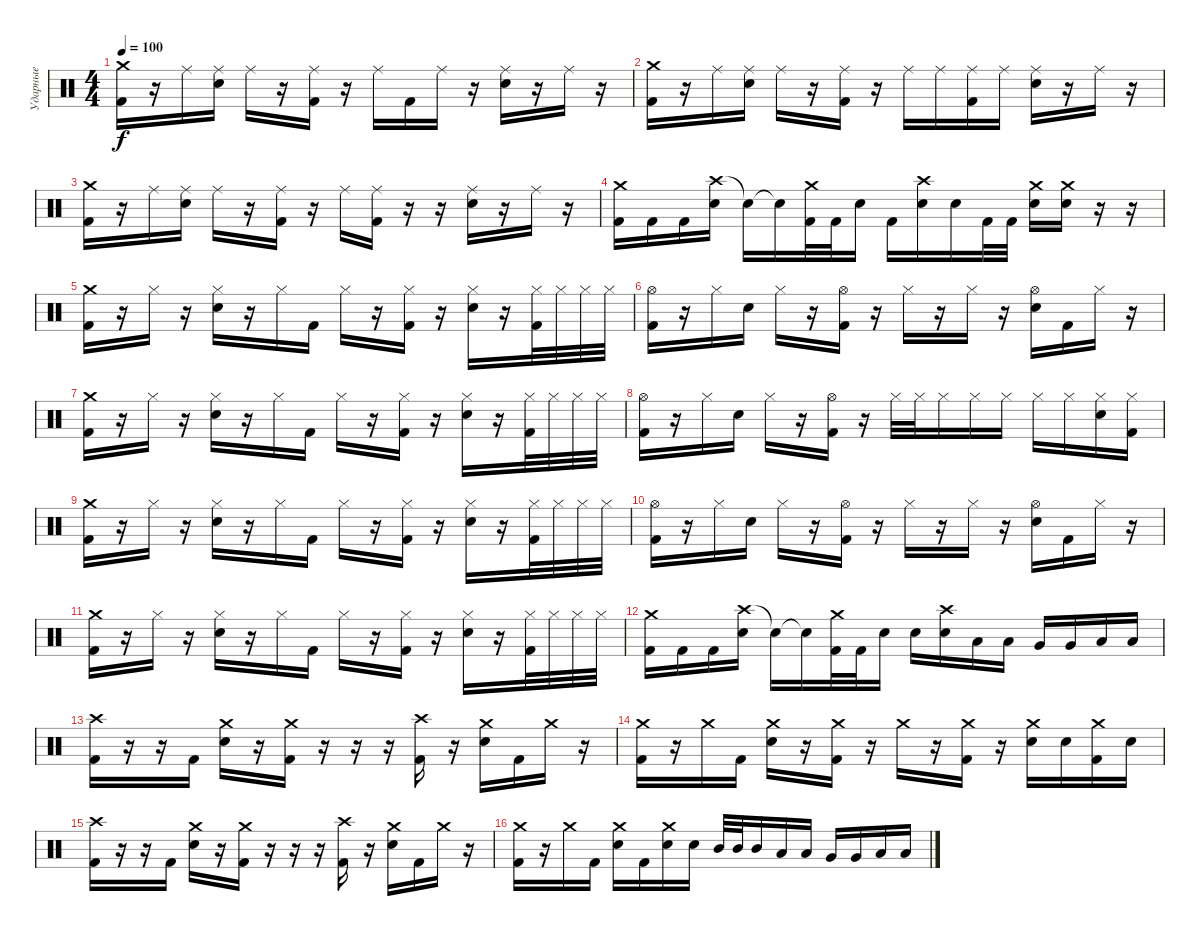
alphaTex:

\track ("Ударные" "Ударные") {instrument percussion}
\staff {score}
\articulation defaults
\ts (4 4)
\tempo 100
\clef neutral
\ks c
("Crash medium (hit)" "Kick (hit) 2").16{dy f} r.16 "Ride (middle)".16 ("Ride (middle)" "Electric Snare (hit)").16 "Ride (middle)".16 r.16 ("Ride (middle)" "Kick (hit) 2").16 r.16 "Ride (middle)".16 "Kick (hit) 2".16 "Ride (middle)".16 r.16 ("Ride (middle)" "Electric Snare (hit)").16 r.16 "Ride (middle)".16 r.16 |
("Crash medium (hit)" "Kick (hit) 2").16 r.16 "Ride (middle)".16 ("Ride (middle)" "Electric Snare (hit)").16 "Ride (middle)".16 r.16 ("Ride (middle)" "Kick (hit) 2").16 r.16 "Ride (middle)".16 "Ride (middle)".16 ("Ride (middle)" "Kick (hit) 2").16 "Ride (middle)".16 ("Ride (middle)" "Electric Snare (hit)").16 r.16 "Ride (middle)".16 r.16 |
("Crash medium (hit)" "Kick (hit) 2").16 r.16 "Ride (middle)".16 ("Ride (middle)" "Electric Snare (hit)").16 "Ride (middle)".16 r.16 ("Ride (middle)" "Kick (hit) 2").16 r.16 "Ride (middle)".16 ("Ride (middle)" "Kick (hit) 2").16 r.16 r.16 ("Ride (middle)" "Electric Snare (hit)").16 r.16 "Ride (middle)".16 r.16 |
("Crash medium (hit)" "Kick (hit) 2").16 "Kick (hit) 2".16 "Kick (hit) 2".16 ("Crash high (hit)" "Electric Snare (hit)").16 "Snare (hit)"{t}.16 "Snare (hit)"{t}.16 ("Crash medium (hit)" "Kick (hit) 2").32 "Kick (hit) 2".32 "Electric Snare (hit)".16 "Kick (hit) 2".16 ("Crash high (hit)" "Electric Snare (hit)").16 "Electric Snare (hit)".16 "Kick (hit) 2".32 "Kick (hit) 2".32 ("Crash medium (hit)" "Electric Snare (hit)").16 ("Crash medium (hit)" "Electric Snare (hit)").16 r.16 r.16 |
("Crash medium (hit)" "Kick (hit) 2").16 r.16 "Hi-Hat (closed)".16 r.16 ("Hi-Hat (closed)" "Electric Snare (hit)").16 r.16 "Hi-Hat (closed)".16 "Kick (hit) 2".16 "Hi-Hat (closed)".16 r.16 ("Hi-Hat (closed)" "Kick (hit) 2").16 r.16 ("Hi-Hat (closed)" "Electric Snare (hit)").16 r.16 ("Hi-Hat (closed)" "Kick (hit) 2").32 "Hi-Hat (closed)".32 "Hi-Hat (closed)".32 "Hi-Hat (closed)".32 |
("Hi-Hat (open)" "Kick (hit) 2").16 r.16 "Hi-Hat (closed)".16 "Electric Snare (hit)".16 "Hi-Hat (closed)".16 r.16 ("Hi-Hat (open)" "Kick (hit) 2").16 r.16 "Hi-Hat (closed)".16 r.16 "Hi-Hat (closed)".16 r.16 ("Hi-Hat (open)" "Electric Snare (hit)").16 "Kick (hit) 2".16 "Hi-Hat (closed)".16 r.16 |
("Crash medium (hit)" "Kick (hit) 2").16 r.16 "Hi-Hat (closed)".16 r.16 ("Hi-Hat (closed)" "Electric Snare (hit)").16 r.16 "Hi-Hat (closed)".16 "Kick (hit) 2".16 "Hi-Hat (closed)".16 r.16 ("Hi-Hat (closed)" "Kick (hit) 2").16 r.16 ("Hi-Hat (closed)" "Electric Snare (hit)").16 r.16 ("Hi-Hat (closed)" "Kick (hit) 2").32 "Hi-Hat (closed)".32 "Hi-Hat (closed)".32 "Hi-Hat (closed)".32 |
("Hi-Hat (open)" "Kick (hit) 2").16 r.16 "Hi-Hat (closed)".16 "Electric Snare (hit)".16 "Hi-Hat (closed)".16 r.16 ("Hi-Hat (open)" "Kick (hit) 2").16 r.16 "Hi-Hat (closed)".32 "Hi-Hat (closed)".32 "Hi-Hat (closed)".16 "Hi-Hat (closed)".16 "Hi-Hat (closed)".16 "Hi-Hat (closed)".16 "Hi-Hat (closed)".16 ("Hi-Hat (closed)" "Electric Snare (hit)").16 ("Hi-Hat (closed)" "Kick (hit) 2").16 |
("Crash medium (hit)" "Kick (hit) 2").16 r.16 "Hi-Hat (closed)".16 r.16 ("Hi-Hat (closed)" "Electric Snare (hit)").16 r.16 "Hi-Hat (closed)".16 "Kick (hit) 2".16 "Hi-Hat (closed)".16 r.16 ("Hi-Hat (closed)" "Kick (hit) 2").16 r.16 ("Hi-Hat (closed)" "Electric Snare (hit)").16 r.16 ("Hi-Hat (closed)" "Kick (hit) 2").32 "Hi-Hat (closed)".32 "Hi-Hat (closed)".32 "Hi-Hat (closed)".32 |
("Hi-Hat (open)" "Kick (hit) 2").16 r.16 "Hi-Hat (closed)".16 "Electric Snare (hit)".16 "Hi-Hat (closed)".16 r.16 ("Hi-Hat (open)" "Kick (hit) 2").16 r.16 "Hi-Hat (closed)".16 r.16 "Hi-Hat (closed)".16 r.16 ("Hi-Hat (open)" "Electric Snare (hit)").16 "Kick (hit) 2".16 "Hi-Hat (closed)".16 r.16 |
("Crash medium (hit)" "Kick (hit) 2").16 r.16 "Hi-Hat (closed)".16 r.16 ("Hi-Hat (closed)" "Electric Snare (hit)").16 r.16 "Hi-Hat (closed)".16 "Kick (hit) 2".16 "Hi-Hat (closed)".16 r.16 ("Hi-Hat (closed)" "Kick (hit) 2").16 r.16 ("Hi-Hat (closed)" "Electric Snare (hit)").16 r.16 ("Hi-Hat (closed)" "Kick (hit) 2").32 "Hi-Hat (closed)".32 "Hi-Hat (closed)".32 "Hi-Hat (closed)".32 |
("Crash medium (hit)" "Kick (hit) 2").16 "Kick (hit) 2".16 "Kick (hit) 2".16 ("Crash high (hit)" "Electric Snare (hit)").16 "Snare (hit)"{t}.16 "Snare (hit)"{t}.16 ("Crash medium (hit)" "Kick (hit) 2").32 "Kick (hit) 2".32 "Electric Snare (hit)".16 "Electric Snare (hit)".16 ("Crash high (hit)" "Electric Snare (hit)").16 "Low Tom (hit)".16 "Low Tom (hit)".16 "Very Low Tom (hit)".16 "Very Low Tom (hit)".16 "Low Floor Tom (hit)".16 "Low Floor Tom (hit)".16 |
("Crash high (hit)" "Kick (hit) 2").16 r.16 r.16 "Kick (hit) 2".16 ("Crash medium (hit)" "Electric Snare (hit)").16 r.16 ("Crash medium (hit)" "Kick (hit) 2").16 r.16 r.16 r.16 ("Crash high (hit)" "Kick (hit) 2").16 r.16 ("Crash medium (hit)" "Electric Snare (hit)").16 "Kick (hit) 2".16 "Crash medium (hit)".16 r.16 |
("Crash medium (hit)" "Kick (hit) 2").16 r.16 "Crash medium (hit)".16 "Kick (hit) 2".16 ("Crash medium (hit)" "Electric Snare (hit)").16 r.16 ("Crash medium (hit)" "Kick (hit) 2").16 r.16 "Crash medium (hit)".16 r.16 ("Crash medium (hit)" "Kick (hit) 2").16 r.16 ("Crash medium (hit)" "Electric Snare (hit)").16 "Electric Snare (hit)".16 ("Crash medium (hit)" "Kick (hit) 2").16 "Electric Snare (hit)".16 |
("Crash high (hit)" "Kick (hit) 2").16 r.16 r.16 "Kick (hit) 2".16 ("Crash medium (hit)" "Electric Snare (hit)").16 r.16 ("Crash medium (hit)" "Kick (hit) 2").16 r.16 r.16 r.16 ("Crash high (hit)" "Kick (hit) 2").16 r.16 ("Crash medium (hit)" "Electric Snare (hit)").16 "Kick (hit) 2".16 "Crash medium (hit)".16 r.16 |
("Crash medium (hit)" "Kick (hit) 2").16 r.16 "Crash medium (hit)".16 "Kick (hit) 2".16 ("Crash medium (hit)" "Electric Snare (hit)").16 "Kick (hit) 2".16 ("Crash medium (hit)" "Electric Snare (hit)").16 "Electric Snare (hit)".16 "Mid Tom (hit)".32 "Mid Tom (hit)".32 "Mid Tom (hit)".16 "Low Tom (hit)".16 "Low Tom (hit)".16 "Very Low Tom (hit)".16 "Very Low Tom (hit)".16 "Low Floor Tom (hit)".16 "Low Floor Tom (hit)".16
